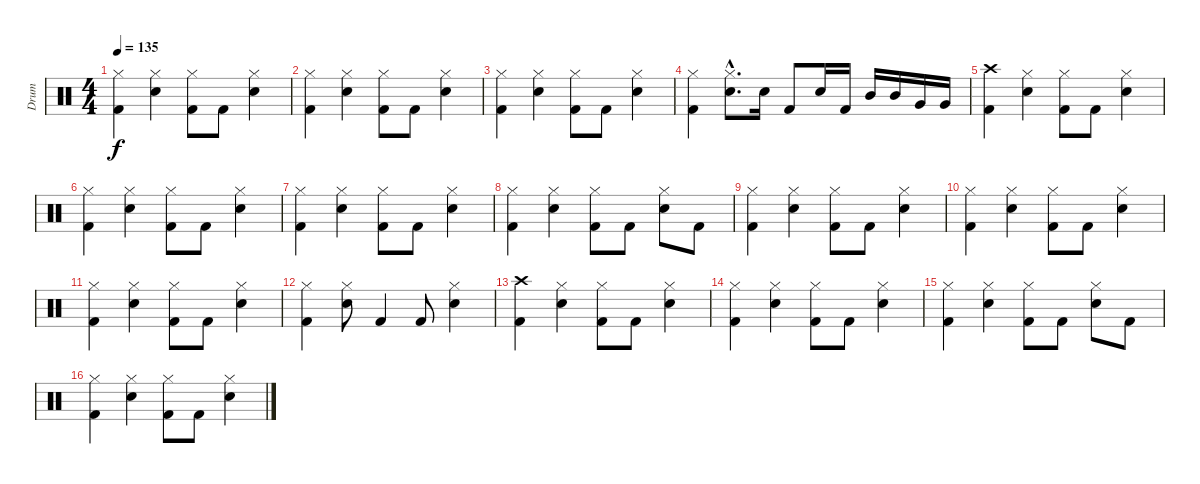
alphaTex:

\track ("Drum" "Drum") {instrument percussion}
\staff {score}
\articulation defaults
\ts (4 4)
\tempo 135
\clef neutral
\ks c
("Kick (hit) 2" "Hi-Hat (closed)").4{dy f} ("Snare (hit) 2" "Hi-Hat (closed)").4 ("Kick (hit) 2" "Hi-Hat (closed)").8 "Kick (hit) 2".8 ("Snare (hit) 2" "Hi-Hat (closed)").4 |
("Kick (hit) 2" "Hi-Hat (closed)").4 ("Snare (hit) 2" "Hi-Hat (closed)").4 ("Kick (hit) 2" "Hi-Hat (closed)").8 "Kick (hit) 2".8 ("Snare (hit) 2" "Hi-Hat (closed)").4 |
("Kick (hit) 2" "Hi-Hat (closed)").4 ("Snare (hit) 2" "Hi-Hat (closed)").4 ("Kick (hit) 2" "Hi-Hat (closed)").8 "Kick (hit) 2".8 ("Snare (hit) 2" "Hi-Hat (closed)").4 |
("Kick (hit) 2" "Hi-Hat (closed)").4 ("Snare (hit) 2"{hac} "Hi-Hat (closed)"{hac}).8{d} "Snare (hit) 2".16 "Kick (hit) 2".8 "Snare (hit) 2".16 "Kick (hit) 2".16 "Mid Tom (hit)".16 "Mid Tom (hit)".16 "Very Low Tom (hit)".16 "Very Low Tom (hit)".16 |
("Kick (hit) 2" "Crash high (hit)").4 ("Snare (hit) 2" "Hi-Hat (closed)").4 ("Kick (hit) 2" "Hi-Hat (closed)").8 "Kick (hit) 2".8 ("Snare (hit) 2" "Hi-Hat (closed)").4 |
("Kick (hit) 2" "Hi-Hat (closed)").4 ("Snare (hit) 2" "Hi-Hat (closed)").4 ("Kick (hit) 2" "Hi-Hat (closed)").8 "Kick (hit) 2".8 ("Snare (hit) 2" "Hi-Hat (closed)").4 |
("Kick (hit) 2" "Hi-Hat (closed)").4 ("Snare (hit) 2" "Hi-Hat (closed)").4 ("Kick (hit) 2" "Hi-Hat (closed)").8 "Kick (hit) 2".8 ("Snare (hit) 2" "Hi-Hat (closed)").4 |
("Kick (hit) 2" "Hi-Hat (closed)").4 ("Snare (hit) 2" "Hi-Hat (closed)").4 ("Kick (hit) 2" "Hi-Hat (closed)").8 "Kick (hit) 2".8 ("Snare (hit) 2" "Hi-Hat (closed)").8 "Kick (hit) 2".8 |
("Kick (hit) 2" "Hi-Hat (closed)").4 ("Snare (hit) 2" "Hi-Hat (closed)").4 ("Kick (hit) 2" "Hi-Hat (closed)").8 "Kick (hit) 2".8 ("Snare (hit) 2" "Hi-Hat (closed)").4 |
("Kick (hit) 2" "Hi-Hat (closed)").4 ("Snare (hit) 2" "Hi-Hat (closed)").4 ("Kick (hit) 2" "Hi-Hat (closed)").8 "Kick (hit) 2".8 ("Snare (hit) 2" "Hi-Hat (closed)").4 |
("Kick (hit) 2" "Hi-Hat (closed)").4 ("Snare (hit) 2" "Hi-Hat (closed)").4 ("Kick (hit) 2" "Hi-Hat (closed)").8 "Kick (hit) 2".8 ("Snare (hit) 2" "Hi-Hat (closed)").4 |
("Kick (hit) 2" "Hi-Hat (closed)").4 ("Snare (hit) 2" "Hi-Hat (closed)").8 "Kick (hit) 2".4 "Kick (hit) 2".8 ("Snare (hit) 2" "Hi-Hat (closed)").4 |
("Kick (hit) 2" "Crash high (hit)").4 ("Snare (hit) 2" "Hi-Hat (closed)").4 ("Kick (hit) 2" "Hi-Hat (closed)").8 "Kick (hit) 2".8 ("Snare (hit) 2" "Hi-Hat (closed)").4 |
("Kick (hit) 2" "Hi-Hat (closed)").4 ("Snare (hit) 2" "Hi-Hat (closed)").4 ("Kick (hit) 2" "Hi-Hat (closed)").8 "Kick (hit) 2".8 ("Snare (hit) 2" "Hi-Hat (closed)").4 |
("Kick (hit) 2" "Hi-Hat (closed)").4 ("Snare (hit) 2" "Hi-Hat (closed)").4 ("Kick (hit) 2" "Hi-Hat (closed)").8 "Kick (hit) 2".8 ("Snare (hit) 2" "Hi-Hat (closed)").8 "Kick (hit) 2".8 |
("Kick (hit) 2" "Hi-Hat (closed)").4 ("Snare (hit) 2" "Hi-Hat (closed)").4 ("Kick (hit) 2" "Hi-Hat (closed)").8 "Kick (hit) 2".8 ("Snare (hit) 2" "Hi-Hat (closed)").4
